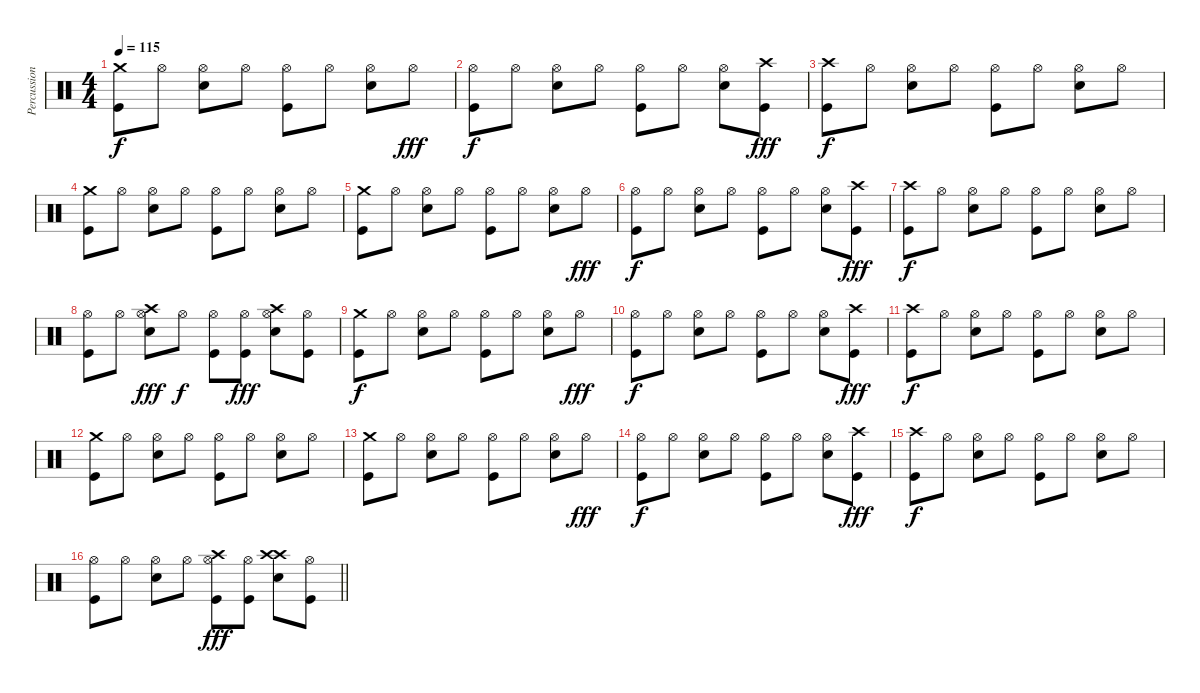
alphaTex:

\track ("Percussion" "Percussion") {instrument percussion}
\staff {score}
\articulation defaults
\ts (4 4)
\tempo 115
\clef neutral
\ks c
("Crash medium (hit)" "Kick (hit)").8{dy f} "Hi-Hat (open)".8 ("Hi-Hat (open)" "Electric Snare (hit)").8 "Hi-Hat (open)".8 ("Hi-Hat (open)" "Kick (hit)").8 "Hi-Hat (open)".8 ("Hi-Hat (open)" "Electric Snare (hit)").8 "Hi-Hat (open)".8{dy fff} |
("Hi-Hat (open)" "Kick (hit)").8{dy f} "Hi-Hat (open)".8 ("Hi-Hat (open)" "Electric Snare (hit)").8 "Hi-Hat (open)".8 ("Hi-Hat (open)" "Kick (hit)").8 "Hi-Hat (open)".8 ("Hi-Hat (open)" "Electric Snare (hit)").8 ("Crash high (hit)" "Kick (hit)").8{dy fff} |
("Crash high (hit)" "Kick (hit)").8{dy f} "Hi-Hat (open)".8 ("Hi-Hat (open)" "Electric Snare (hit)").8 "Hi-Hat (open)".8 ("Hi-Hat (open)" "Kick (hit)").8 "Hi-Hat (open)".8 ("Hi-Hat (open)" "Electric Snare (hit)").8 "Hi-Hat (open)".8 |
("Crash medium (hit)" "Kick (hit)").8 "Hi-Hat (open)".8 ("Hi-Hat (open)" "Electric Snare (hit)").8 "Hi-Hat (open)".8 ("Hi-Hat (open)" "Kick (hit)").8 "Hi-Hat (open)".8 ("Hi-Hat (open)" "Electric Snare (hit)").8 "Hi-Hat (open)".8 |
("Crash medium (hit)" "Kick (hit)").8 "Hi-Hat (open)".8 ("Hi-Hat (open)" "Electric Snare (hit)").8 "Hi-Hat (open)".8 ("Hi-Hat (open)" "Kick (hit)").8 "Hi-Hat (open)".8 ("Hi-Hat (open)" "Electric Snare (hit)").8 "Hi-Hat (open)".8{dy fff} |
("Hi-Hat (open)" "Kick (hit)").8{dy f} "Hi-Hat (open)".8 ("Hi-Hat (open)" "Electric Snare (hit)").8 "Hi-Hat (open)".8 ("Hi-Hat (open)" "Kick (hit)").8 "Hi-Hat (open)".8 ("Hi-Hat (open)" "Electric Snare (hit)").8 ("Crash high (hit)" "Kick (hit)").8{dy fff} |
("Crash high (hit)" "Kick (hit)").8{dy f} "Hi-Hat (open)".8 ("Hi-Hat (open)" "Electric Snare (hit)").8 "Hi-Hat (open)".8 ("Hi-Hat (open)" "Kick (hit)").8 "Hi-Hat (open)".8 ("Hi-Hat (open)" "Electric Snare (hit)").8 "Hi-Hat (open)".8 |
("Hi-Hat (open)" "Kick (hit)").8 "Hi-Hat (open)".8 ("Hi-Hat (open)" "Crash high (hit)" "Electric Snare (hit)").8{dy fff} "Hi-Hat (open)".8{dy f} ("Hi-Hat (open)" "Kick (hit)").8 ("Hi-Hat (open)" "Kick (hit)").8{dy fff} ("Crash high (hit)" "Hi-Hat (open)" "Electric Snare (hit)").8 ("Hi-Hat (open)" "Kick (hit)").8 |
("Crash medium (hit)" "Kick (hit)").8{dy f} "Hi-Hat (open)".8 ("Hi-Hat (open)" "Electric Snare (hit)").8 "Hi-Hat (open)".8 ("Hi-Hat (open)" "Kick (hit)").8 "Hi-Hat (open)".8 ("Hi-Hat (open)" "Electric Snare (hit)").8 "Hi-Hat (open)".8{dy fff} |
("Hi-Hat (open)" "Kick (hit)").8{dy f} "Hi-Hat (open)".8 ("Hi-Hat (open)" "Electric Snare (hit)").8 "Hi-Hat (open)".8 ("Hi-Hat (open)" "Kick (hit)").8 "Hi-Hat (open)".8 ("Hi-Hat (open)" "Electric Snare (hit)").8 ("Crash high (hit)" "Kick (hit)").8{dy fff} |
("Crash high (hit)" "Kick (hit)").8{dy f} "Hi-Hat (open)".8 ("Hi-Hat (open)" "Electric Snare (hit)").8 "Hi-Hat (open)".8 ("Hi-Hat (open)" "Kick (hit)").8 "Hi-Hat (open)".8 ("Hi-Hat (open)" "Electric Snare (hit)").8 "Hi-Hat (open)".8 |
("Crash medium (hit)" "Kick (hit)").8 "Hi-Hat (open)".8 ("Hi-Hat (open)" "Electric Snare (hit)").8 "Hi-Hat (open)".8 ("Hi-Hat (open)" "Kick (hit)").8 "Hi-Hat (open)".8 ("Hi-Hat (open)" "Electric Snare (hit)").8 "Hi-Hat (open)".8 |
("Crash medium (hit)" "Kick (hit)").8 "Hi-Hat (open)".8 ("Hi-Hat (open)" "Electric Snare (hit)").8 "Hi-Hat (open)".8 ("Hi-Hat (open)" "Kick (hit)").8 "Hi-Hat (open)".8 ("Hi-Hat (open)" "Electric Snare (hit)").8 "Hi-Hat (open)".8{dy fff} |
("Hi-Hat (open)" "Kick (hit)").8{dy f} "Hi-Hat (open)".8 ("Hi-Hat (open)" "Electric Snare (hit)").8 "Hi-Hat (open)".8 ("Hi-Hat (open)" "Kick (hit)").8 "Hi-Hat (open)".8 ("Hi-Hat (open)" "Electric Snare (hit)").8 ("Crash high (hit)" "Kick (hit)").8{dy fff} |
("Crash high (hit)" "Kick (hit)").8{dy f} "Hi-Hat (open)".8 ("Hi-Hat (open)" "Electric Snare (hit)").8 "Hi-Hat (open)".8 ("Hi-Hat (open)" "Kick (hit)").8 "Hi-Hat (open)".8 ("Hi-Hat (open)" "Electric Snare (hit)").8 "Hi-Hat (open)".8 |
\barLineRight lightlight
("Hi-Hat (open)" "Kick (hit)").8 "Hi-Hat (open)".8 ("Hi-Hat (open)" "Electric Snare (hit)").8 "Hi-Hat (open)".8 ("Hi-Hat (open)" "Crash high (hit)" "Kick (hit)").8{dy fff} ("Hi-Hat (open)" "Kick (hit)").8 ("Crash high (hit)" "Crash high (hit)" "Electric Snare (hit)").8 ("Hi-Hat (open)" "Kick (hit)").8
